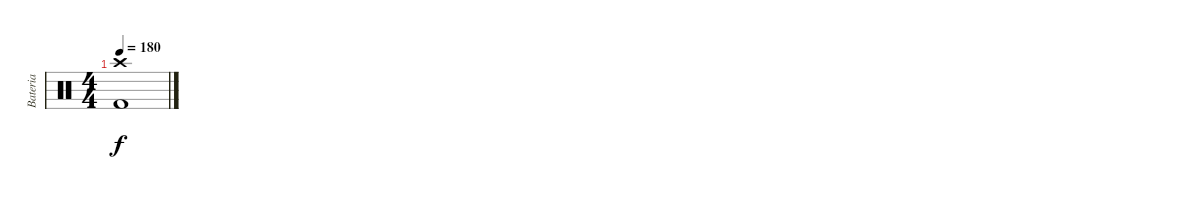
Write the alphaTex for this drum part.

\track ("Bateria" "Bateria") {instrument percussion}
\staff {score}
\articulation defaults
\ts (4 4)
\tempo 180
\clef neutral
\ks c
("Kick (hit) 2" "Crash high (hit)").1{dy f}
